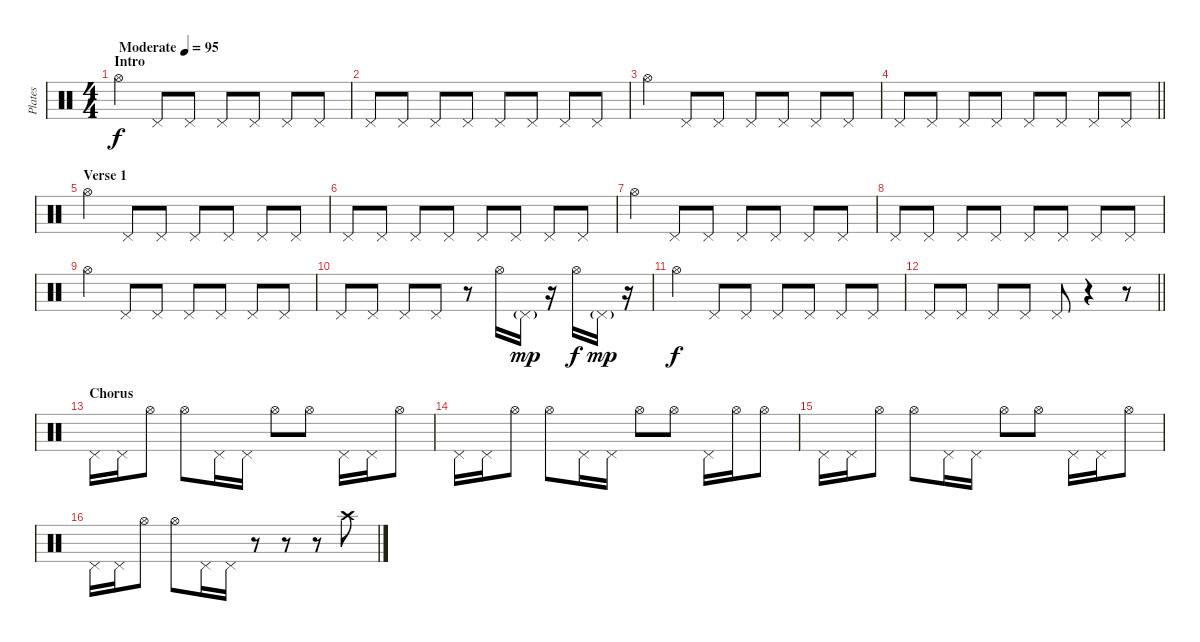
\track ("Plates" "Plates") {instrument percussion}
\staff {score}
\articulation defaults
\ts (4 4)
\section ("" "Intro")
\tempo (95 "Moderate")
\clef neutral
\ks c "Hi-Hat (open)".4{dy f} "Pedal Hi-Hat (hit)".8 "Pedal Hi-Hat (hit)".8 "Pedal Hi-Hat (hit)".8 "Pedal Hi-Hat (hit)".8 "Pedal Hi-Hat (hit)".8 "Pedal Hi-Hat (hit)".8
|
"Pedal Hi-Hat (hit)".8 "Pedal Hi-Hat (hit)".8 "Pedal Hi-Hat (hit)".8 "Pedal Hi-Hat (hit)".8 "Pedal Hi-Hat (hit)".8 "Pedal Hi-Hat (hit)".8 "Pedal Hi-Hat (hit)".8 "Pedal Hi-Hat (hit)".8 |
"Hi-Hat (open)".4 "Pedal Hi-Hat (hit)".8 "Pedal Hi-Hat (hit)".8 "Pedal Hi-Hat (hit)".8 "Pedal Hi-Hat (hit)".8 "Pedal Hi-Hat (hit)".8 "Pedal Hi-Hat (hit)".8 |
\barLineRight lightlight "Pedal Hi-Hat (hit)".8 "Pedal Hi-Hat (hit)".8 "Pedal Hi-Hat (hit)".8 "Pedal Hi-Hat (hit)".8 "Pedal Hi-Hat (hit)".8 "Pedal Hi-Hat (hit)".8 "Pedal Hi-Hat (hit)".8 "Pedal Hi-Hat (hit)".8
|
\section ("" "Verse 1")
"Hi-Hat (open)".4 "Pedal Hi-Hat (hit)".8 "Pedal Hi-Hat (hit)".8 "Pedal Hi-Hat (hit)".8 "Pedal Hi-Hat (hit)".8 "Pedal Hi-Hat (hit)".8 "Pedal Hi-Hat (hit)".8 |
"Pedal Hi-Hat (hit)".8 "Pedal Hi-Hat (hit)".8 "Pedal Hi-Hat (hit)".8 "Pedal Hi-Hat (hit)".8 "Pedal Hi-Hat (hit)".8 "Pedal Hi-Hat (hit)".8 "Pedal Hi-Hat (hit)".8 "Pedal Hi-Hat (hit)".8 |
"Hi-Hat (open)".4 "Pedal Hi-Hat (hit)".8 "Pedal Hi-Hat (hit)".8 "Pedal Hi-Hat (hit)".8 "Pedal Hi-Hat (hit)".8 "Pedal Hi-Hat (hit)".8 "Pedal Hi-Hat (hit)".8 |
"Pedal Hi-Hat (hit)".8 "Pedal Hi-Hat (hit)".8 "Pedal Hi-Hat (hit)".8 "Pedal Hi-Hat (hit)".8 "Pedal Hi-Hat (hit)".8 "Pedal Hi-Hat (hit)".8 "Pedal Hi-Hat (hit)".8 "Pedal Hi-Hat (hit)".8 |
"Hi-Hat (open)".4 "Pedal Hi-Hat (hit)".8 "Pedal Hi-Hat (hit)".8 "Pedal Hi-Hat (hit)".8 "Pedal Hi-Hat (hit)".8 "Pedal Hi-Hat (hit)".8 "Pedal Hi-Hat (hit)".8 |
"Pedal Hi-Hat (hit)".8 "Pedal Hi-Hat (hit)".8 "Pedal Hi-Hat (hit)".8 "Pedal Hi-Hat (hit)".8 r.8 "Hi-Hat (open)".16 "Pedal Hi-Hat (hit)"{g}.16{dy mp} r.16 "Hi-Hat (open)".16{dy f} "Pedal Hi-Hat (hit)"{g}.16{dy mp} r.16 |
"Hi-Hat (open)".4{dy f} "Pedal Hi-Hat (hit)".8 "Pedal Hi-Hat (hit)".8 "Pedal Hi-Hat (hit)".8 "Pedal Hi-Hat (hit)".8 "Pedal Hi-Hat (hit)".8 "Pedal Hi-Hat (hit)".8 |
\barLineRight lightlight "Pedal Hi-Hat (hit)".8 "Pedal Hi-Hat (hit)".8 "Pedal Hi-Hat (hit)".8 "Pedal Hi-Hat (hit)".8 "Pedal Hi-Hat (hit)".8
r.4 r.8 |
\section ("" "Chorus")
"Pedal Hi-Hat (hit)".16 "Pedal Hi-Hat (hit)".16 "Hi-Hat (open)".8 "Hi-Hat (open)".8 "Pedal Hi-Hat (hit)".16 "Pedal Hi-Hat (hit)".16 "Hi-Hat (open)".8 "Hi-Hat (open)".8 "Pedal Hi-Hat (hit)".16 "Pedal Hi-Hat (hit)".16 "Hi-Hat (open)".8 |
"Pedal Hi-Hat (hit)".16 "Pedal Hi-Hat (hit)".16 "Hi-Hat (open)".8 "Hi-Hat (open)".8 "Pedal Hi-Hat (hit)".16 "Pedal Hi-Hat (hit)".16 "Hi-Hat (open)".8 "Hi-Hat (open)".8 "Pedal Hi-Hat (hit)".16 "Hi-Hat (open)".16 "Hi-Hat (open)".8 |
"Pedal Hi-Hat (hit)".16 "Pedal Hi-Hat (hit)".16 "Hi-Hat (open)".8 "Hi-Hat (open)".8 "Pedal Hi-Hat (hit)".16 "Pedal Hi-Hat (hit)".16 "Hi-Hat (open)".8 "Hi-Hat (open)".8 "Pedal Hi-Hat (hit)".16 "Pedal Hi-Hat (hit)".16 "Hi-Hat (open)".8 |
"Pedal Hi-Hat (hit)".16 "Pedal Hi-Hat (hit)".16 "Hi-Hat (open)".8 "Hi-Hat (open)".8 "Pedal Hi-Hat (hit)".16 "Pedal Hi-Hat (hit)".16 r.8 r.8 r.8 "Crash high (hit)".8
